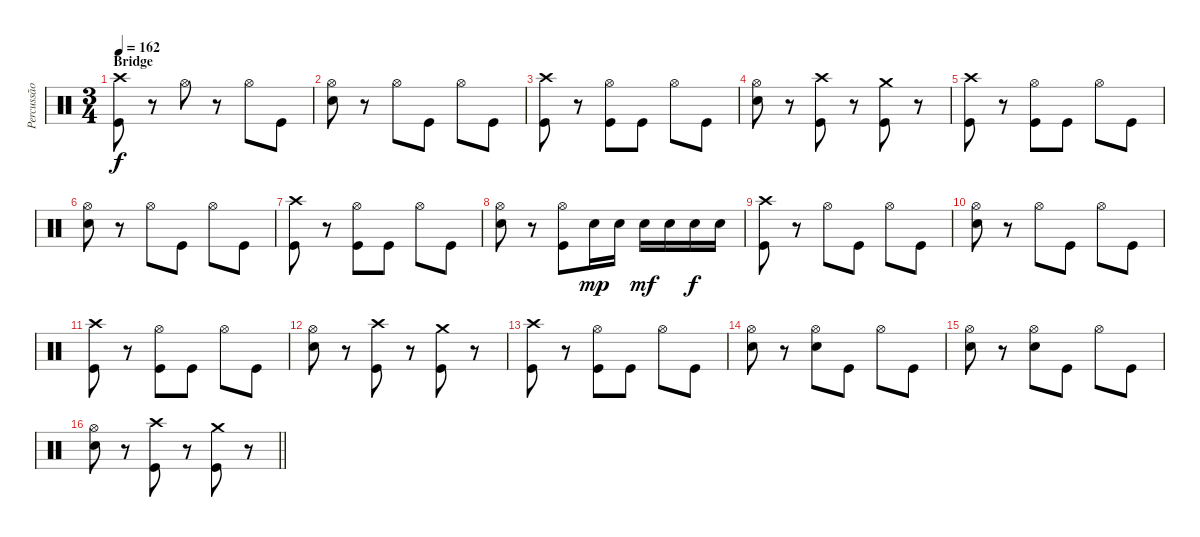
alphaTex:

\track ("Percussão" "Percussão") {instrument percussion}
\staff {score}
\articulation defaults
\ts (3 4)
\section ("" "Bridge")
\tempo 162
\clef neutral
\ks c
("Crash high (hit)" "Kick (hit)").8{dy f} r.8 "Hi-Hat (open)".8 r.8 "Hi-Hat (open)".8 "Kick (hit)".8 |
("Hi-Hat (open)" "Snare (hit) 2").8 r.8 "Hi-Hat (open)".8 "Kick (hit)".8 "Hi-Hat (open)".8 "Kick (hit)".8 |
("Crash high (hit)" "Kick (hit)").8 r.8 ("Hi-Hat (open)" "Kick (hit)").8 "Kick (hit)".8 "Hi-Hat (open)".8 "Kick (hit)".8 |
("Hi-Hat (open)" "Snare (hit) 2").8 r.8 ("Crash high (hit)" "Kick (hit)").8 r.8 ("Crash medium (hit)" "Kick (hit)").8 r.8 |
("Crash high (hit)" "Kick (hit)").8 r.8 ("Hi-Hat (open)" "Kick (hit)").8 "Kick (hit)".8 "Hi-Hat (open)".8 "Kick (hit)".8 |
("Hi-Hat (open)" "Snare (hit) 2").8 r.8 "Hi-Hat (open)".8 "Kick (hit)".8 "Hi-Hat (open)".8 "Kick (hit)".8 |
("Crash high (hit)" "Kick (hit)").8 r.8 ("Hi-Hat (open)" "Kick (hit)").8 "Kick (hit)".8 "Hi-Hat (open)".8 "Kick (hit)".8 |
("Hi-Hat (open)" "Snare (hit) 2").8 r.8 ("Hi-Hat (open)" "Kick (hit)").8 "Snare (hit) 2".16{dy mp} "Snare (hit) 2".16 "Snare (hit) 2".16{dy mf} "Snare (hit) 2".16 "Snare (hit) 2".16{dy f} "Snare (hit) 2".16 |
("Crash high (hit)" "Kick (hit)").8 r.8 "Hi-Hat (open)".8 "Kick (hit)".8 "Hi-Hat (open)".8 "Kick (hit)".8 |
("Hi-Hat (open)" "Snare (hit) 2").8 r.8 "Hi-Hat (open)".8 "Kick (hit)".8 "Hi-Hat (open)".8 "Kick (hit)".8 |
("Crash high (hit)" "Kick (hit)").8 r.8 ("Hi-Hat (open)" "Kick (hit)").8 "Kick (hit)".8 "Hi-Hat (open)".8 "Kick (hit)".8 |
("Hi-Hat (open)" "Snare (hit) 2").8 r.8 ("Crash high (hit)" "Kick (hit)").8 r.8 ("Crash medium (hit)" "Kick (hit)").8 r.8 |
("Crash high (hit)" "Kick (hit)").8 r.8 ("Hi-Hat (open)" "Kick (hit)").8 "Kick (hit)".8 "Hi-Hat (open)".8 "Kick (hit)".8 |
("Hi-Hat (open)" "Snare (hit) 2").8 r.8 ("Hi-Hat (open)" "Snare (hit) 2").8 "Kick (hit)".8 "Hi-Hat (open)".8 "Kick (hit)".8 |
("Hi-Hat (open)" "Snare (hit) 2").8 r.8 ("Hi-Hat (open)" "Snare (hit) 2").8 "Kick (hit)".8 "Hi-Hat (open)".8 "Kick (hit)".8 |
\barLineRight lightlight
("Hi-Hat (open)" "Snare (hit) 2").8 r.8 ("Crash high (hit)" "Kick (hit)").8 r.8 ("Crash medium (hit)" "Kick (hit)").8 r.8
